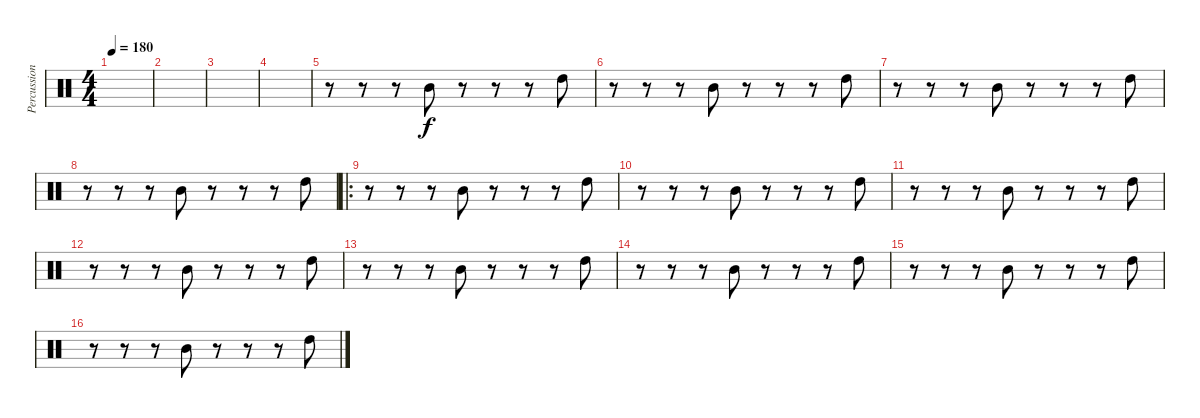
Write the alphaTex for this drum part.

\track ("Percussions" "Percussion") {instrument percussion}
\staff {score}
\articulation defaults
\ts (4 4)
\tempo 180
\clef neutral
\ks c
|
|
|
|
r.8 r.8 r.8 "Mid Tom (hit)".8 r.8 r.8 r.8 "High Tom (hit)".8 |
r.8 r.8 r.8 "Mid Tom (hit)".8 r.8 r.8 r.8 "High Tom (hit)".8 |
r.8 r.8 r.8 "Mid Tom (hit)".8 r.8 r.8 r.8 "High Tom (hit)".8 |
r.8 r.8 r.8 "Mid Tom (hit)".8 r.8 r.8 r.8 "High Tom (hit)".8 |
\ro
r.8 r.8 r.8 "Mid Tom (hit)".8 r.8 r.8 r.8 "High Tom (hit)".8 |
r.8 r.8 r.8 "Mid Tom (hit)".8 r.8 r.8 r.8 "High Tom (hit)".8 |
r.8 r.8 r.8 "Mid Tom (hit)".8 r.8 r.8 r.8 "High Tom (hit)".8 |
r.8 r.8 r.8 "Mid Tom (hit)".8 r.8 r.8 r.8 "High Tom (hit)".8 |
r.8 r.8 r.8 "Mid Tom (hit)".8 r.8 r.8 r.8 "High Tom (hit)".8 |
r.8 r.8 r.8 "Mid Tom (hit)".8 r.8 r.8 r.8 "High Tom (hit)".8 |
r.8 r.8 r.8 "Mid Tom (hit)".8 r.8 r.8 r.8 "High Tom (hit)".8 |
r.8 r.8 r.8 "Mid Tom (hit)".8 r.8 r.8 r.8 "High Tom (hit)".8
